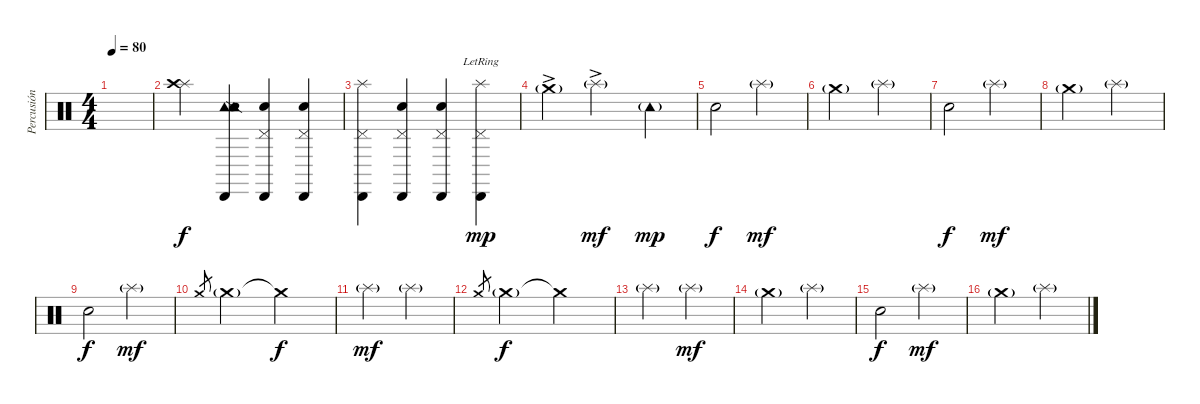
\track ("Percusión" "Percusión") {instrument percussion}
\staff {score}
\articulation defaults
\ts (4 4)
\tempo 80
\clef neutral
\ks c
|
("Splash (hit)" "Crash high (hit)").4 ("Tambourine (hit)" "Snare (side stick) 2" "Tambourine (hit)" "Cabasa (hit)" "Tambourine (hit)" "Tambourine (hit)").4 ("Cabasa (hit)" "Snare (hit)"{x} "Pedal Hi-Hat (hit)").4 ("Cabasa (hit)" "Snare (hit)"{x} "Pedal Hi-Hat (hit)").4 |
("Cabasa (hit)" "Splash (hit)"{x} "Pedal Hi-Hat (hit)").4 ("Cabasa (hit)" "Snare (hit)"{x} "Pedal Hi-Hat (hit)").4 ("Cabasa (hit)" "Snare (hit)"{x} "Pedal Hi-Hat (hit)").4 ("Cabasa (hit)" "Splash (hit)"{lr} "Pedal Hi-Hat (hit)").4{dy mp} |
"Crash medium (hit)"{g ac}.4 "Splash (hit)"{g ac}.2{dy mf} "Tambourine (hit)"{tr (54 32) g}.4{dy mp} |
"Snare (hit)"{x}.2{dy f} "Splash (hit)"{g}.2{dy mf} |
"Crash medium (hit)"{g}.2 "Splash (hit)"{g}.2 |
"Snare (hit)"{x}.2{dy f} "Splash (hit)"{g}.2{dy mf} |
"Crash medium (hit)"{g}.2 "Splash (hit)"{g}.2 |
"Snare (hit)"{x}.2{dy f} "Splash (hit)"{g}.2{dy mf} |
"Crash medium (hit)".8{gr} "Crash medium (hit)"{g}.2 "Crash medium (hit)"{t}.2{dy f} |
"Splash (hit)"{g}.2{dy mf} "Splash (hit)"{g}.2 |
"Crash medium (hit)".8{gr} "Crash medium (hit)"{g}.2{dy f} "Crash medium (hit)"{t}.2 |
"Splash (hit)"{g}.2 "Splash (hit)"{g}.2{dy mf} |
"Crash medium (hit)"{g}.2 "Splash (hit)"{g}.2 |
"Snare (hit)"{x}.2{dy f} "Splash (hit)"{g}.2{dy mf} |
"Crash medium (hit)"{g}.2 "Splash (hit)"{g}.2
